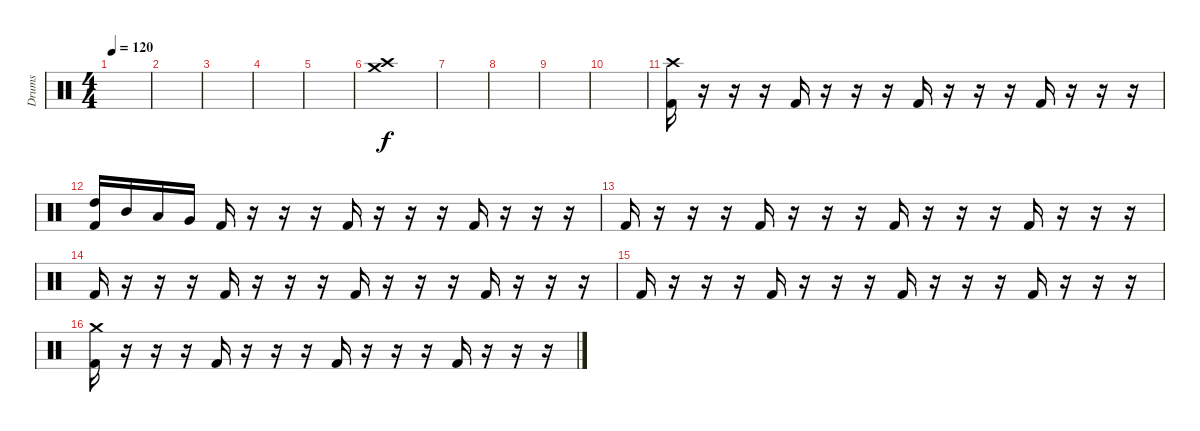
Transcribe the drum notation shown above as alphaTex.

\track ("Drums" "Drums") {instrument percussion}
\staff {score}
\articulation defaults
\ts (4 4)
\tempo 120
\clef neutral
\ks c
|
|
|
|
|
("Crash medium (hit)" "Crash high (hit)").1 |
|
|
|
|
("Crash high (hit)" "Kick (hit) 2").16 r.16 r.16 r.16 "Kick (hit) 2".16 r.16 r.16 r.16 "Kick (hit) 2".16 r.16 r.16 r.16 "Kick (hit) 2".16 r.16 r.16 r.16 |
("High Tom (hit)" "Kick (hit) 2").16 "Mid Tom (hit)".16 "Low Tom (hit)".16 "Very Low Tom (hit)".16 "Kick (hit) 2".16 r.16 r.16 r.16 "Kick (hit) 2".16 r.16 r.16 r.16 "Kick (hit) 2".16 r.16 r.16 r.16 |
"Kick (hit) 2".16 r.16 r.16 r.16 "Kick (hit) 2".16 r.16 r.16 r.16 "Kick (hit) 2".16 r.16 r.16 r.16 "Kick (hit) 2".16 r.16 r.16 r.16 |
"Kick (hit) 2".16 r.16 r.16 r.16 "Kick (hit) 2".16 r.16 r.16 r.16 "Kick (hit) 2".16 r.16 r.16 r.16 "Kick (hit) 2".16 r.16 r.16 r.16 |
"Kick (hit) 2".16 r.16 r.16 r.16 "Kick (hit) 2".16 r.16 r.16 r.16 "Kick (hit) 2".16 r.16 r.16 r.16 "Kick (hit) 2".16 r.16 r.16 r.16 |
("Crash medium (hit)" "Kick (hit) 2").16 r.16 r.16 r.16 "Kick (hit) 2".16 r.16 r.16 r.16 "Kick (hit) 2".16 r.16 r.16 r.16 "Kick (hit) 2".16 r.16 r.16 r.16
